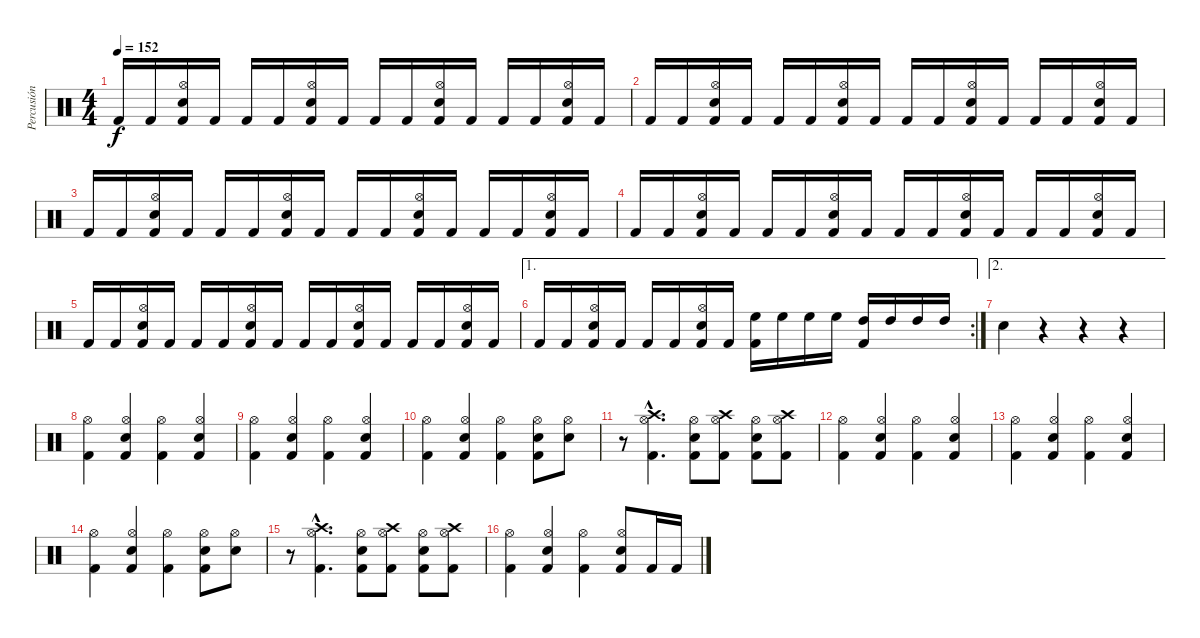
\track ("Percusión" "Percusión") {instrument percussion}
\staff {score}
\articulation defaults
\ts (4 4)
\tempo 152
\clef neutral
\ks c "Kick (hit) 2".16{dy f} "Kick (hit) 2".16
("Hi-Hat (open)" "Snare (hit) 2" "Kick (hit) 2").16 "Kick (hit) 2".16 "Kick (hit) 2".16 "Kick (hit) 2".16 ("Hi-Hat (open)" "Snare (hit) 2" "Kick (hit) 2").16 "Kick (hit) 2".16 "Kick (hit) 2".16 "Kick (hit) 2".16 ("Hi-Hat (open)" "Snare (hit) 2" "Kick (hit) 2").16 "Kick (hit) 2".16 "Kick (hit) 2".16 "Kick (hit) 2".16 ("Hi-Hat (open)" "Snare (hit) 2" "Kick (hit) 2").16 "Kick (hit) 2".16 |
"Kick (hit) 2".16 "Kick (hit) 2".16 ("Hi-Hat (open)" "Snare (hit) 2" "Kick (hit) 2").16 "Kick (hit) 2".16 "Kick (hit) 2".16 "Kick (hit) 2".16 ("Hi-Hat (open)" "Snare (hit) 2" "Kick (hit) 2").16 "Kick (hit) 2".16 "Kick (hit) 2".16 "Kick (hit) 2".16 ("Hi-Hat (open)" "Snare (hit) 2" "Kick (hit) 2").16 "Kick (hit) 2".16 "Kick (hit) 2".16 "Kick (hit) 2".16 ("Hi-Hat (open)" "Snare (hit) 2" "Kick (hit) 2").16 "Kick (hit) 2".16 |
"Kick (hit) 2".16 "Kick (hit) 2".16 ("Hi-Hat (open)" "Snare (hit) 2" "Kick (hit) 2").16 "Kick (hit) 2".16 "Kick (hit) 2".16 "Kick (hit) 2".16 ("Hi-Hat (open)" "Snare (hit) 2" "Kick (hit) 2").16 "Kick (hit) 2".16 "Kick (hit) 2".16 "Kick (hit) 2".16 ("Hi-Hat (open)" "Snare (hit) 2" "Kick (hit) 2").16 "Kick (hit) 2".16 "Kick (hit) 2".16 "Kick (hit) 2".16 ("Hi-Hat (open)" "Snare (hit) 2" "Kick (hit) 2").16 "Kick (hit) 2".16 |
"Kick (hit) 2".16 "Kick (hit) 2".16 ("Hi-Hat (open)" "Snare (hit) 2" "Kick (hit) 2").16 "Kick (hit) 2".16 "Kick (hit) 2".16 "Kick (hit) 2".16 ("Hi-Hat (open)" "Snare (hit) 2" "Kick (hit) 2").16 "Kick (hit) 2".16 "Kick (hit) 2".16 "Kick (hit) 2".16 ("Hi-Hat (open)" "Snare (hit) 2" "Kick (hit) 2").16 "Kick (hit) 2".16 "Kick (hit) 2".16 "Kick (hit) 2".16 ("Hi-Hat (open)" "Snare (hit) 2" "Kick (hit) 2").16 "Kick (hit) 2".16 |
"Kick (hit) 2".16 "Kick (hit) 2".16 ("Hi-Hat (open)" "Snare (hit) 2" "Kick (hit) 2").16 "Kick (hit) 2".16 "Kick (hit) 2".16 "Kick (hit) 2".16 ("Hi-Hat (open)" "Snare (hit) 2" "Kick (hit) 2").16 "Kick (hit) 2".16 "Kick (hit) 2".16 "Kick (hit) 2".16 ("Hi-Hat (open)" "Snare (hit) 2" "Kick (hit) 2").16 "Kick (hit) 2".16 "Kick (hit) 2".16 "Kick (hit) 2".16 ("Hi-Hat (open)" "Snare (hit) 2" "Kick (hit) 2").16 "Kick (hit) 2".16 |
\ae 1
\rc 2 "Kick (hit) 2".16 "Kick (hit) 2".16
("Hi-Hat (open)" "Snare (hit) 2" "Kick (hit) 2").16 "Kick (hit) 2".16 "Kick (hit) 2".16 "Kick (hit) 2".16 ("Hi-Hat (open)" "Snare (hit) 2" "Kick (hit) 2").16 "Kick (hit) 2".16 ("Kick (hit) 2" "High Floor Tom (hit)").16 "High Floor Tom (hit)".16 "High Floor Tom (hit)".16 "High Floor Tom (hit)".16 ("Kick (hit) 2" "High Tom (hit)").16 "High Tom (hit)".16 "High Tom (hit)".16 "High Tom (hit)".16 |
\ae 2 "Snare (hit) 2".4
r.4 r.4 r.4 |
("Hi-Hat (open)" "Kick (hit) 2").4 ("Hi-Hat (open)" "Snare (hit) 2" "Kick (hit) 2").4 ("Hi-Hat (open)" "Kick (hit) 2").4 ("Hi-Hat (open)" "Snare (hit) 2" "Kick (hit) 2").4 |
("Hi-Hat (open)" "Kick (hit) 2").4 ("Hi-Hat (open)" "Snare (hit) 2" "Kick (hit) 2").4 ("Hi-Hat (open)" "Kick (hit) 2").4 ("Hi-Hat (open)" "Snare (hit) 2" "Kick (hit) 2").4 |
("Hi-Hat (open)" "Kick (hit) 2").4 ("Hi-Hat (open)" "Snare (hit) 2" "Kick (hit) 2").4 ("Hi-Hat (open)" "Kick (hit) 2").4 ("Hi-Hat (open)" "Snare (hit) 2" "Kick (hit) 2").8 ("Hi-Hat (open)" "Snare (hit) 2").8 |
r.8 ("Crash high (hit)"{hac} "Hi-Hat (open)"{hac} "Kick (hit) 2"{hac}).4{d} ("Hi-Hat (open)" "Snare (hit) 2" "Kick (hit) 2").8 ("Crash high (hit)" "Hi-Hat (open)" "Kick (hit) 2").8 ("Hi-Hat (open)" "Snare (hit) 2" "Kick (hit) 2").8 ("Crash high (hit)" "Hi-Hat (open)" "Kick (hit) 2").8 |
("Hi-Hat (open)" "Kick (hit) 2").4 ("Hi-Hat (open)" "Snare (hit) 2" "Kick (hit) 2").4 ("Hi-Hat (open)" "Kick (hit) 2").4 ("Hi-Hat (open)" "Snare (hit) 2" "Kick (hit) 2").4 |
("Hi-Hat (open)" "Kick (hit) 2").4 ("Hi-Hat (open)" "Snare (hit) 2" "Kick (hit) 2").4 ("Hi-Hat (open)" "Kick (hit) 2").4 ("Hi-Hat (open)" "Snare (hit) 2" "Kick (hit) 2").4 |
("Hi-Hat (open)" "Kick (hit) 2").4 ("Hi-Hat (open)" "Snare (hit) 2" "Kick (hit) 2").4 ("Hi-Hat (open)" "Kick (hit) 2").4 ("Hi-Hat (open)" "Snare (hit) 2" "Kick (hit) 2").8 ("Hi-Hat (open)" "Snare (hit) 2").8 |
r.8 ("Crash high (hit)"{hac} "Hi-Hat (open)"{hac} "Kick (hit) 2"{hac}).4{d} ("Hi-Hat (open)" "Snare (hit) 2" "Kick (hit) 2").8 ("Crash high (hit)" "Hi-Hat (open)" "Kick (hit) 2").8 ("Hi-Hat (open)" "Snare (hit) 2" "Kick (hit) 2").8 ("Crash high (hit)" "Hi-Hat (open)" "Kick (hit) 2").8 |
("Hi-Hat (open)" "Kick (hit) 2").4 ("Hi-Hat (open)" "Snare (hit) 2" "Kick (hit) 2").4 ("Hi-Hat (open)" "Kick (hit) 2").4 ("Hi-Hat (open)" "Snare (hit) 2" "Kick (hit) 2").8 "Kick (hit) 2".16 "Kick (hit) 2".16
